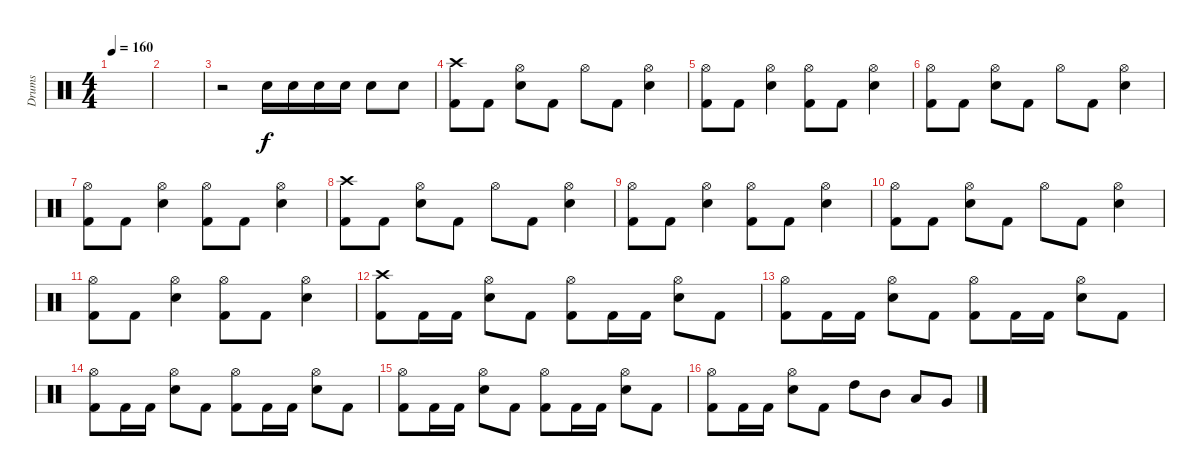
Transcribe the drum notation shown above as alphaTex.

\track ("Drums" "Drums") {instrument percussion}
\staff {score}
\articulation defaults
\ts (4 4)
\tempo 160
\clef neutral
\ks c
|
|
r.2 "Electric Snare (hit)".16 "Electric Snare (hit)".16 "Electric Snare (hit)".16 "Electric Snare (hit)".16 "Electric Snare (hit)".8 "Electric Snare (hit)".8 |
("Crash high (hit)" "Kick (hit) 2").8 "Kick (hit) 2".8 ("Hi-Hat (open)" "Electric Snare (hit)").8 "Kick (hit) 2".8 "Hi-Hat (open)".8 "Kick (hit) 2".8 ("Hi-Hat (open)" "Electric Snare (hit)").4 |
("Hi-Hat (open)" "Kick (hit) 2").8 "Kick (hit) 2".8 ("Hi-Hat (open)" "Electric Snare (hit)").4 ("Hi-Hat (open)" "Kick (hit) 2").8 "Kick (hit) 2".8 ("Hi-Hat (open)" "Electric Snare (hit)").4 |
("Hi-Hat (open)" "Kick (hit) 2").8 "Kick (hit) 2".8 ("Hi-Hat (open)" "Electric Snare (hit)").8 "Kick (hit) 2".8 "Hi-Hat (open)".8 "Kick (hit) 2".8 ("Hi-Hat (open)" "Electric Snare (hit)").4 |
("Hi-Hat (open)" "Kick (hit) 2").8 "Kick (hit) 2".8 ("Hi-Hat (open)" "Electric Snare (hit)").4 ("Hi-Hat (open)" "Kick (hit) 2").8 "Kick (hit) 2".8 ("Hi-Hat (open)" "Electric Snare (hit)").4 |
("Crash high (hit)" "Kick (hit) 2").8 "Kick (hit) 2".8 ("Hi-Hat (open)" "Electric Snare (hit)").8 "Kick (hit) 2".8 "Hi-Hat (open)".8 "Kick (hit) 2".8 ("Hi-Hat (open)" "Electric Snare (hit)").4 |
("Hi-Hat (open)" "Kick (hit) 2").8 "Kick (hit) 2".8 ("Hi-Hat (open)" "Electric Snare (hit)").4 ("Hi-Hat (open)" "Kick (hit) 2").8 "Kick (hit) 2".8 ("Hi-Hat (open)" "Electric Snare (hit)").4 |
("Hi-Hat (open)" "Kick (hit) 2").8 "Kick (hit) 2".8 ("Hi-Hat (open)" "Electric Snare (hit)").8 "Kick (hit) 2".8 "Hi-Hat (open)".8 "Kick (hit) 2".8 ("Hi-Hat (open)" "Electric Snare (hit)").4 |
("Hi-Hat (open)" "Kick (hit) 2").8 "Kick (hit) 2".8 ("Hi-Hat (open)" "Electric Snare (hit)").4 ("Hi-Hat (open)" "Kick (hit) 2").8 "Kick (hit) 2".8 ("Hi-Hat (open)" "Electric Snare (hit)").4 |
("Crash high (hit)" "Kick (hit) 2").8 "Kick (hit) 2".16 "Kick (hit) 2".16 ("Hi-Hat (open)" "Electric Snare (hit)").8 "Kick (hit) 2".8 ("Hi-Hat (open)" "Kick (hit) 2").8 "Kick (hit) 2".16 "Kick (hit) 2".16 ("Hi-Hat (open)" "Electric Snare (hit)").8 "Kick (hit) 2".8 |
("Hi-Hat (open)" "Kick (hit) 2").8 "Kick (hit) 2".16 "Kick (hit) 2".16 ("Hi-Hat (open)" "Electric Snare (hit)").8 "Kick (hit) 2".8 ("Hi-Hat (open)" "Kick (hit) 2").8 "Kick (hit) 2".16 "Kick (hit) 2".16 ("Hi-Hat (open)" "Electric Snare (hit)").8 "Kick (hit) 2".8 |
("Hi-Hat (open)" "Kick (hit) 2").8 "Kick (hit) 2".16 "Kick (hit) 2".16 ("Hi-Hat (open)" "Electric Snare (hit)").8 "Kick (hit) 2".8 ("Hi-Hat (open)" "Kick (hit) 2").8 "Kick (hit) 2".16 "Kick (hit) 2".16 ("Hi-Hat (open)" "Electric Snare (hit)").8 "Kick (hit) 2".8 |
("Hi-Hat (open)" "Kick (hit) 2").8 "Kick (hit) 2".16 "Kick (hit) 2".16 ("Hi-Hat (open)" "Electric Snare (hit)").8 "Kick (hit) 2".8 ("Hi-Hat (open)" "Kick (hit) 2").8 "Kick (hit) 2".16 "Kick (hit) 2".16 ("Hi-Hat (open)" "Electric Snare (hit)").8 "Kick (hit) 2".8 |
("Hi-Hat (open)" "Kick (hit) 2").8 "Kick (hit) 2".16 "Kick (hit) 2".16 ("Hi-Hat (open)" "Electric Snare (hit)").8 "Kick (hit) 2".8 "High Tom (hit)".8 "Mid Tom (hit)".8 "Low Tom (hit)".8 "Very Low Tom (hit)".8
